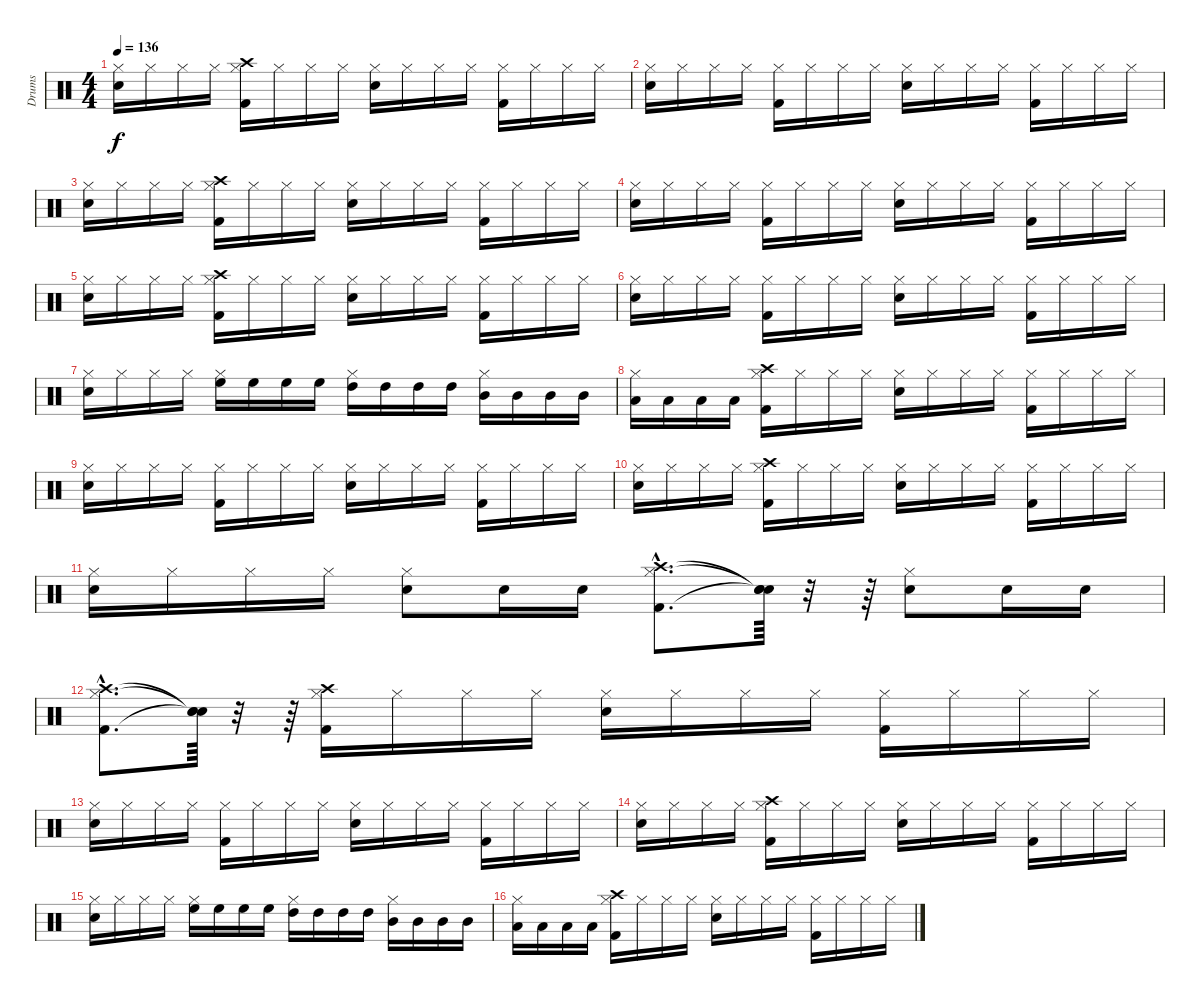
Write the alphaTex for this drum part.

\track ("Drums" "Drums") {instrument percussion}
\staff {score}
\articulation defaults
\ts (4 4)
\tempo 136
\clef neutral
\ks c
("Snare (hit) 2" "Hi-Hat (closed)").16{dy f} "Hi-Hat (closed)".16 "Hi-Hat (closed)".16 "Hi-Hat (closed)".16 ("Kick (hit) 2" "Hi-Hat (closed)" "Crash high (hit)").16 "Hi-Hat (closed)".16 "Hi-Hat (closed)".16 "Hi-Hat (closed)".16 ("Snare (hit) 2" "Hi-Hat (closed)").16 "Hi-Hat (closed)".16 "Hi-Hat (closed)".16 "Hi-Hat (closed)".16 ("Kick (hit) 2" "Hi-Hat (closed)").16 "Hi-Hat (closed)".16 "Hi-Hat (closed)".16 "Hi-Hat (closed)".16 |
("Snare (hit) 2" "Hi-Hat (closed)").16 "Hi-Hat (closed)".16 "Hi-Hat (closed)".16 "Hi-Hat (closed)".16 ("Kick (hit) 2" "Hi-Hat (closed)").16 "Hi-Hat (closed)".16 "Hi-Hat (closed)".16 "Hi-Hat (closed)".16 ("Snare (hit) 2" "Hi-Hat (closed)").16 "Hi-Hat (closed)".16 "Hi-Hat (closed)".16 "Hi-Hat (closed)".16 ("Kick (hit) 2" "Hi-Hat (closed)").16 "Hi-Hat (closed)".16 "Hi-Hat (closed)".16 "Hi-Hat (closed)".16 |
("Snare (hit) 2" "Hi-Hat (closed)").16 "Hi-Hat (closed)".16 "Hi-Hat (closed)".16 "Hi-Hat (closed)".16 ("Kick (hit) 2" "Hi-Hat (closed)" "Crash high (hit)").16 "Hi-Hat (closed)".16 "Hi-Hat (closed)".16 "Hi-Hat (closed)".16 ("Snare (hit) 2" "Hi-Hat (closed)").16 "Hi-Hat (closed)".16 "Hi-Hat (closed)".16 "Hi-Hat (closed)".16 ("Kick (hit) 2" "Hi-Hat (closed)").16 "Hi-Hat (closed)".16 "Hi-Hat (closed)".16 "Hi-Hat (closed)".16 |
("Snare (hit) 2" "Hi-Hat (closed)").16 "Hi-Hat (closed)".16 "Hi-Hat (closed)".16 "Hi-Hat (closed)".16 ("Kick (hit) 2" "Hi-Hat (closed)").16 "Hi-Hat (closed)".16 "Hi-Hat (closed)".16 "Hi-Hat (closed)".16 ("Snare (hit) 2" "Hi-Hat (closed)").16 "Hi-Hat (closed)".16 "Hi-Hat (closed)".16 "Hi-Hat (closed)".16 ("Kick (hit) 2" "Hi-Hat (closed)").16 "Hi-Hat (closed)".16 "Hi-Hat (closed)".16 "Hi-Hat (closed)".16 |
("Snare (hit) 2" "Hi-Hat (closed)").16 "Hi-Hat (closed)".16 "Hi-Hat (closed)".16 "Hi-Hat (closed)".16 ("Kick (hit) 2" "Hi-Hat (closed)" "Crash high (hit)").16 "Hi-Hat (closed)".16 "Hi-Hat (closed)".16 "Hi-Hat (closed)".16 ("Snare (hit) 2" "Hi-Hat (closed)").16 "Hi-Hat (closed)".16 "Hi-Hat (closed)".16 "Hi-Hat (closed)".16 ("Kick (hit) 2" "Hi-Hat (closed)").16 "Hi-Hat (closed)".16 "Hi-Hat (closed)".16 "Hi-Hat (closed)".16 |
("Snare (hit) 2" "Hi-Hat (closed)").16 "Hi-Hat (closed)".16 "Hi-Hat (closed)".16 "Hi-Hat (closed)".16 ("Kick (hit) 2" "Hi-Hat (closed)").16 "Hi-Hat (closed)".16 "Hi-Hat (closed)".16 "Hi-Hat (closed)".16 ("Snare (hit) 2" "Hi-Hat (closed)").16 "Hi-Hat (closed)".16 "Hi-Hat (closed)".16 "Hi-Hat (closed)".16 ("Kick (hit) 2" "Hi-Hat (closed)").16 "Hi-Hat (closed)".16 "Hi-Hat (closed)".16 "Hi-Hat (closed)".16 |
("Snare (hit) 2" "Hi-Hat (closed)").16 "Hi-Hat (closed)".16 "Hi-Hat (closed)".16 "Hi-Hat (closed)".16 ("Hi-Hat (closed)" "High Floor Tom (hit)").16 "High Floor Tom (hit)".16 "High Floor Tom (hit)".16 "High Floor Tom (hit)".16 ("Hi-Hat (closed)" "High Tom (hit)").16 "High Tom (hit)".16 "High Tom (hit)".16 "High Tom (hit)".16 ("Hi-Hat (closed)" "Mid Tom (hit)").16 "Mid Tom (hit)".16 "Mid Tom (hit)".16 "Mid Tom (hit)".16 |
("Hi-Hat (closed)" "Low Tom (hit)").16 "Low Tom (hit)".16 "Low Tom (hit)".16 "Low Tom (hit)".16 ("Kick (hit) 2" "Hi-Hat (closed)" "Crash high (hit)").16 "Hi-Hat (closed)".16 "Hi-Hat (closed)".16 "Hi-Hat (closed)".16 ("Snare (hit) 2" "Hi-Hat (closed)").16 "Hi-Hat (closed)".16 "Hi-Hat (closed)".16 "Hi-Hat (closed)".16 ("Kick (hit) 2" "Hi-Hat (closed)").16 "Hi-Hat (closed)".16 "Hi-Hat (closed)".16 "Hi-Hat (closed)".16 |
("Snare (hit) 2" "Hi-Hat (closed)").16 "Hi-Hat (closed)".16 "Hi-Hat (closed)".16 "Hi-Hat (closed)".16 ("Kick (hit) 2" "Hi-Hat (closed)").16 "Hi-Hat (closed)".16 "Hi-Hat (closed)".16 "Hi-Hat (closed)".16 ("Snare (hit) 2" "Hi-Hat (closed)").16 "Hi-Hat (closed)".16 "Hi-Hat (closed)".16 "Hi-Hat (closed)".16 ("Kick (hit) 2" "Hi-Hat (closed)").16 "Hi-Hat (closed)".16 "Hi-Hat (closed)".16 "Hi-Hat (closed)".16 |
("Snare (hit) 2" "Hi-Hat (closed)").16 "Hi-Hat (closed)".16 "Hi-Hat (closed)".16 "Hi-Hat (closed)".16 ("Kick (hit) 2" "Hi-Hat (closed)" "Crash high (hit)").16 "Hi-Hat (closed)".16 "Hi-Hat (closed)".16 "Hi-Hat (closed)".16 ("Snare (hit) 2" "Hi-Hat (closed)").16 "Hi-Hat (closed)".16 "Hi-Hat (closed)".16 "Hi-Hat (closed)".16 ("Kick (hit) 2" "Hi-Hat (closed)").16 "Hi-Hat (closed)".16 "Hi-Hat (closed)".16 "Hi-Hat (closed)".16 |
("Snare (hit) 2" "Hi-Hat (closed)").16 "Hi-Hat (closed)".16 "Hi-Hat (closed)".16 "Hi-Hat (closed)".16 ("Snare (hit) 2" "Hi-Hat (closed)").8 "Snare (hit) 2".16 "Snare (hit) 2".16 ("Kick (hit) 2"{hac} "Hi-Hat (closed)"{hac} "Crash high (hit)"{hac}).8{d} ("Snare (hit)"{t} "Snare (hit)"{t} "Snare (hit)"{t}).64 r.32 r.64 ("Snare (hit) 2" "Hi-Hat (closed)").8 "Snare (hit) 2".16 "Snare (hit) 2".16 |
("Kick (hit) 2"{hac} "Hi-Hat (closed)"{hac} "Crash high (hit)"{hac}).8{d} ("Snare (hit)"{t} "Snare (hit)"{t} "Snare (hit)"{t}).64 r.32 r.64 ("Kick (hit) 2" "Hi-Hat (closed)" "Crash high (hit)").16 "Hi-Hat (closed)".16 "Hi-Hat (closed)".16 "Hi-Hat (closed)".16 ("Snare (hit) 2" "Hi-Hat (closed)").16 "Hi-Hat (closed)".16 "Hi-Hat (closed)".16 "Hi-Hat (closed)".16 ("Kick (hit) 2" "Hi-Hat (closed)").16 "Hi-Hat (closed)".16 "Hi-Hat (closed)".16 "Hi-Hat (closed)".16 |
("Snare (hit) 2" "Hi-Hat (closed)").16 "Hi-Hat (closed)".16 "Hi-Hat (closed)".16 "Hi-Hat (closed)".16 ("Kick (hit) 2" "Hi-Hat (closed)").16 "Hi-Hat (closed)".16 "Hi-Hat (closed)".16 "Hi-Hat (closed)".16 ("Snare (hit) 2" "Hi-Hat (closed)").16 "Hi-Hat (closed)".16 "Hi-Hat (closed)".16 "Hi-Hat (closed)".16 ("Kick (hit) 2" "Hi-Hat (closed)").16 "Hi-Hat (closed)".16 "Hi-Hat (closed)".16 "Hi-Hat (closed)".16 |
("Snare (hit) 2" "Hi-Hat (closed)").16 "Hi-Hat (closed)".16 "Hi-Hat (closed)".16 "Hi-Hat (closed)".16 ("Kick (hit) 2" "Hi-Hat (closed)" "Crash high (hit)").16 "Hi-Hat (closed)".16 "Hi-Hat (closed)".16 "Hi-Hat (closed)".16 ("Snare (hit) 2" "Hi-Hat (closed)").16 "Hi-Hat (closed)".16 "Hi-Hat (closed)".16 "Hi-Hat (closed)".16 ("Kick (hit) 2" "Hi-Hat (closed)").16 "Hi-Hat (closed)".16 "Hi-Hat (closed)".16 "Hi-Hat (closed)".16 |
("Snare (hit) 2" "Hi-Hat (closed)").16 "Hi-Hat (closed)".16 "Hi-Hat (closed)".16 "Hi-Hat (closed)".16 ("Hi-Hat (closed)" "High Floor Tom (hit)").16 "High Floor Tom (hit)".16 "High Floor Tom (hit)".16 "High Floor Tom (hit)".16 ("Hi-Hat (closed)" "High Tom (hit)").16 "High Tom (hit)".16 "High Tom (hit)".16 "High Tom (hit)".16 ("Hi-Hat (closed)" "Mid Tom (hit)").16 "Mid Tom (hit)".16 "Mid Tom (hit)".16 "Mid Tom (hit)".16 |
("Hi-Hat (closed)" "Low Tom (hit)").16 "Low Tom (hit)".16 "Low Tom (hit)".16 "Low Tom (hit)".16 ("Kick (hit) 2" "Hi-Hat (closed)" "Crash high (hit)").16 "Hi-Hat (closed)".16 "Hi-Hat (closed)".16 "Hi-Hat (closed)".16 ("Snare (hit) 2" "Hi-Hat (closed)").16 "Hi-Hat (closed)".16 "Hi-Hat (closed)".16 "Hi-Hat (closed)".16 ("Kick (hit) 2" "Hi-Hat (closed)").16 "Hi-Hat (closed)".16 "Hi-Hat (closed)".16 "Hi-Hat (closed)".16
